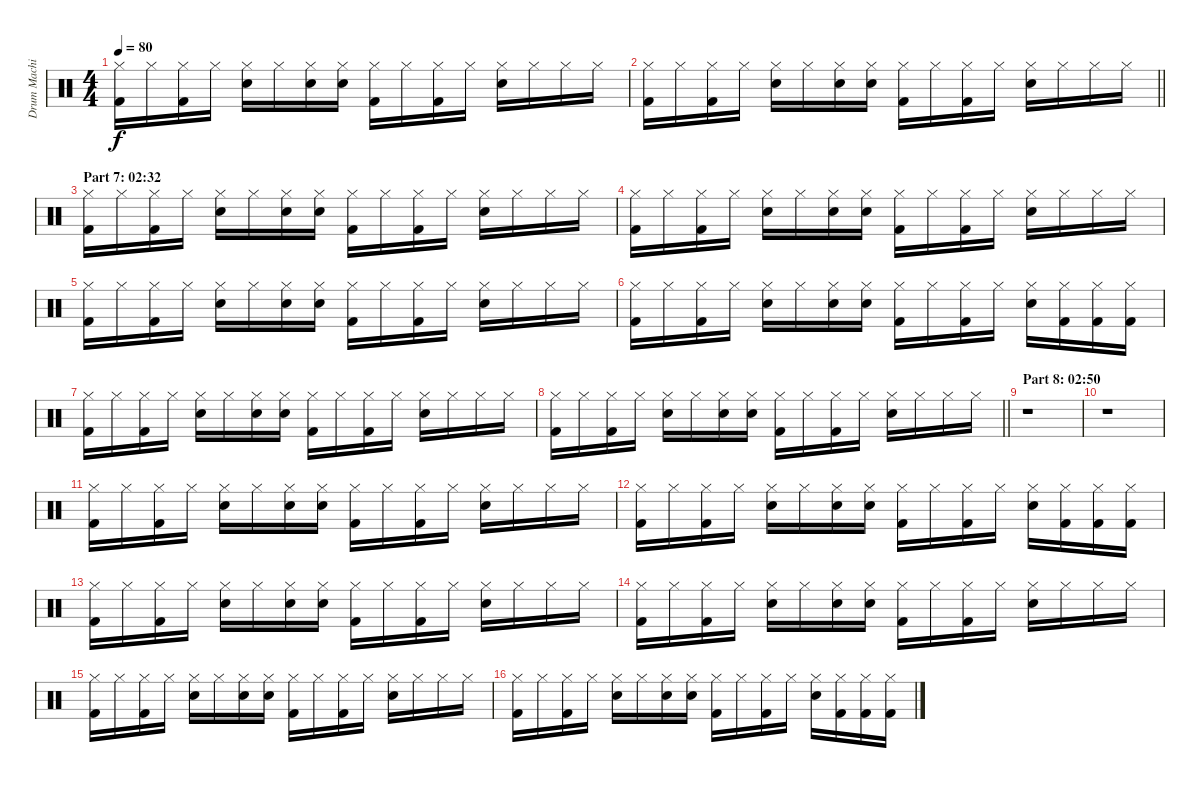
\track ("Drum Machine" "Drum Machi") {instrument percussion}
\staff {score}
\articulation defaults
\ts (4 4)
\tempo 80
\clef neutral
\ks c
("Hi-Hat (closed)" "Kick (hit) 2").16{dy f} "Hi-Hat (closed)".16 ("Hi-Hat (closed)" "Kick (hit) 2").16 "Hi-Hat (closed)".16 ("Hi-Hat (closed)" "Electric Snare (hit)").16 "Hi-Hat (closed)".16 ("Hi-Hat (closed)" "Electric Snare (hit)").16 ("Hi-Hat (closed)" "Electric Snare (hit)").16 ("Hi-Hat (closed)" "Kick (hit) 2").16 "Hi-Hat (closed)".16 ("Hi-Hat (closed)" "Kick (hit) 2").16 "Hi-Hat (closed)".16 ("Hi-Hat (closed)" "Electric Snare (hit)").16 "Hi-Hat (closed)".16 "Hi-Hat (closed)".16 "Hi-Hat (closed)".16 |
\barLineRight lightlight
("Hi-Hat (closed)" "Kick (hit) 2").16 "Hi-Hat (closed)".16 ("Hi-Hat (closed)" "Kick (hit) 2").16 "Hi-Hat (closed)".16 ("Hi-Hat (closed)" "Electric Snare (hit)").16 "Hi-Hat (closed)".16 ("Hi-Hat (closed)" "Electric Snare (hit)").16 ("Hi-Hat (closed)" "Electric Snare (hit)").16 ("Hi-Hat (closed)" "Kick (hit) 2").16 "Hi-Hat (closed)".16 ("Hi-Hat (closed)" "Kick (hit) 2").16 "Hi-Hat (closed)".16 ("Hi-Hat (closed)" "Electric Snare (hit)").16 "Hi-Hat (closed)".16 "Hi-Hat (closed)".16 "Hi-Hat (closed)".16 |
\section ("" "Part 7: 02:32")
("Hi-Hat (closed)" "Kick (hit) 2").16 "Hi-Hat (closed)".16 ("Hi-Hat (closed)" "Kick (hit) 2").16 "Hi-Hat (closed)".16 ("Hi-Hat (closed)" "Electric Snare (hit)").16 "Hi-Hat (closed)".16 ("Hi-Hat (closed)" "Electric Snare (hit)").16 ("Hi-Hat (closed)" "Electric Snare (hit)").16 ("Hi-Hat (closed)" "Kick (hit) 2").16 "Hi-Hat (closed)".16 ("Hi-Hat (closed)" "Kick (hit) 2").16 "Hi-Hat (closed)".16 ("Hi-Hat (closed)" "Electric Snare (hit)").16 "Hi-Hat (closed)".16 "Hi-Hat (closed)".16 "Hi-Hat (closed)".16 |
("Hi-Hat (closed)" "Kick (hit) 2").16 "Hi-Hat (closed)".16 ("Hi-Hat (closed)" "Kick (hit) 2").16 "Hi-Hat (closed)".16 ("Hi-Hat (closed)" "Electric Snare (hit)").16 "Hi-Hat (closed)".16 ("Hi-Hat (closed)" "Electric Snare (hit)").16 ("Hi-Hat (closed)" "Electric Snare (hit)").16 ("Hi-Hat (closed)" "Kick (hit) 2").16 "Hi-Hat (closed)".16 ("Hi-Hat (closed)" "Kick (hit) 2").16 "Hi-Hat (closed)".16 ("Hi-Hat (closed)" "Electric Snare (hit)").16 "Hi-Hat (closed)".16 "Hi-Hat (closed)".16 "Hi-Hat (closed)".16 |
("Hi-Hat (closed)" "Kick (hit) 2").16 "Hi-Hat (closed)".16 ("Hi-Hat (closed)" "Kick (hit) 2").16 "Hi-Hat (closed)".16 ("Hi-Hat (closed)" "Electric Snare (hit)").16 "Hi-Hat (closed)".16 ("Hi-Hat (closed)" "Electric Snare (hit)").16 ("Hi-Hat (closed)" "Electric Snare (hit)").16 ("Hi-Hat (closed)" "Kick (hit) 2").16 "Hi-Hat (closed)".16 ("Hi-Hat (closed)" "Kick (hit) 2").16 "Hi-Hat (closed)".16 ("Hi-Hat (closed)" "Electric Snare (hit)").16 "Hi-Hat (closed)".16 "Hi-Hat (closed)".16 "Hi-Hat (closed)".16 |
("Hi-Hat (closed)" "Kick (hit) 2").16 "Hi-Hat (closed)".16 ("Hi-Hat (closed)" "Kick (hit) 2").16 "Hi-Hat (closed)".16 ("Hi-Hat (closed)" "Electric Snare (hit)").16 "Hi-Hat (closed)".16 ("Hi-Hat (closed)" "Electric Snare (hit)").16 ("Hi-Hat (closed)" "Electric Snare (hit)").16 ("Hi-Hat (closed)" "Kick (hit) 2").16 "Hi-Hat (closed)".16 ("Hi-Hat (closed)" "Kick (hit) 2").16 "Hi-Hat (closed)".16 ("Hi-Hat (closed)" "Electric Snare (hit)").16 ("Hi-Hat (closed)" "Kick (hit) 2").16 ("Hi-Hat (closed)" "Kick (hit) 2").16 ("Hi-Hat (closed)" "Kick (hit) 2").16 |
("Hi-Hat (closed)" "Kick (hit) 2").16 "Hi-Hat (closed)".16 ("Hi-Hat (closed)" "Kick (hit) 2").16 "Hi-Hat (closed)".16 ("Hi-Hat (closed)" "Electric Snare (hit)").16 "Hi-Hat (closed)".16 ("Hi-Hat (closed)" "Electric Snare (hit)").16 ("Hi-Hat (closed)" "Electric Snare (hit)").16 ("Hi-Hat (closed)" "Kick (hit) 2").16 "Hi-Hat (closed)".16 ("Hi-Hat (closed)" "Kick (hit) 2").16 "Hi-Hat (closed)".16 ("Hi-Hat (closed)" "Electric Snare (hit)").16 "Hi-Hat (closed)".16 "Hi-Hat (closed)".16 "Hi-Hat (closed)".16 |
\barLineRight lightlight
("Hi-Hat (closed)" "Kick (hit) 2").16 "Hi-Hat (closed)".16 ("Hi-Hat (closed)" "Kick (hit) 2").16 "Hi-Hat (closed)".16 ("Hi-Hat (closed)" "Electric Snare (hit)").16 "Hi-Hat (closed)".16 ("Hi-Hat (closed)" "Electric Snare (hit)").16 ("Hi-Hat (closed)" "Electric Snare (hit)").16 ("Hi-Hat (closed)" "Kick (hit) 2").16 "Hi-Hat (closed)".16 ("Hi-Hat (closed)" "Kick (hit) 2").16 "Hi-Hat (closed)".16 ("Hi-Hat (closed)" "Electric Snare (hit)").16 "Hi-Hat (closed)".16 "Hi-Hat (closed)".16 "Hi-Hat (closed)".16 |
\section ("" "Part 8: 02:50")
r.1 |
r.1 |
("Hi-Hat (closed)" "Kick (hit) 2").16 "Hi-Hat (closed)".16 ("Hi-Hat (closed)" "Kick (hit) 2").16 "Hi-Hat (closed)".16 ("Hi-Hat (closed)" "Electric Snare (hit)").16 "Hi-Hat (closed)".16 ("Hi-Hat (closed)" "Electric Snare (hit)").16 ("Hi-Hat (closed)" "Electric Snare (hit)").16 ("Hi-Hat (closed)" "Kick (hit) 2").16 "Hi-Hat (closed)".16 ("Hi-Hat (closed)" "Kick (hit) 2").16 "Hi-Hat (closed)".16 ("Hi-Hat (closed)" "Electric Snare (hit)").16 "Hi-Hat (closed)".16 "Hi-Hat (closed)".16 "Hi-Hat (closed)".16 |
("Hi-Hat (closed)" "Kick (hit) 2").16 "Hi-Hat (closed)".16 ("Hi-Hat (closed)" "Kick (hit) 2").16 "Hi-Hat (closed)".16 ("Hi-Hat (closed)" "Electric Snare (hit)").16 "Hi-Hat (closed)".16 ("Hi-Hat (closed)" "Electric Snare (hit)").16 ("Hi-Hat (closed)" "Electric Snare (hit)").16 ("Hi-Hat (closed)" "Kick (hit) 2").16 "Hi-Hat (closed)".16 ("Hi-Hat (closed)" "Kick (hit) 2").16 "Hi-Hat (closed)".16 ("Hi-Hat (closed)" "Electric Snare (hit)").16 ("Hi-Hat (closed)" "Kick (hit) 2").16 ("Hi-Hat (closed)" "Kick (hit) 2").16 ("Hi-Hat (closed)" "Kick (hit) 2").16 |
("Hi-Hat (closed)" "Kick (hit) 2").16 "Hi-Hat (closed)".16 ("Hi-Hat (closed)" "Kick (hit) 2").16 "Hi-Hat (closed)".16 ("Hi-Hat (closed)" "Electric Snare (hit)").16 "Hi-Hat (closed)".16 ("Hi-Hat (closed)" "Electric Snare (hit)").16 ("Hi-Hat (closed)" "Electric Snare (hit)").16 ("Hi-Hat (closed)" "Kick (hit) 2").16 "Hi-Hat (closed)".16 ("Hi-Hat (closed)" "Kick (hit) 2").16 "Hi-Hat (closed)".16 ("Hi-Hat (closed)" "Electric Snare (hit)").16 "Hi-Hat (closed)".16 "Hi-Hat (closed)".16 "Hi-Hat (closed)".16 |
("Hi-Hat (closed)" "Kick (hit) 2").16 "Hi-Hat (closed)".16 ("Hi-Hat (closed)" "Kick (hit) 2").16 "Hi-Hat (closed)".16 ("Hi-Hat (closed)" "Electric Snare (hit)").16 "Hi-Hat (closed)".16 ("Hi-Hat (closed)" "Electric Snare (hit)").16 ("Hi-Hat (closed)" "Electric Snare (hit)").16 ("Hi-Hat (closed)" "Kick (hit) 2").16 "Hi-Hat (closed)".16 ("Hi-Hat (closed)" "Kick (hit) 2").16 "Hi-Hat (closed)".16 ("Hi-Hat (closed)" "Electric Snare (hit)").16 "Hi-Hat (closed)".16 "Hi-Hat (closed)".16 "Hi-Hat (closed)".16 |
("Hi-Hat (closed)" "Kick (hit) 2").16 "Hi-Hat (closed)".16 ("Hi-Hat (closed)" "Kick (hit) 2").16 "Hi-Hat (closed)".16 ("Hi-Hat (closed)" "Electric Snare (hit)").16 "Hi-Hat (closed)".16 ("Hi-Hat (closed)" "Electric Snare (hit)").16 ("Hi-Hat (closed)" "Electric Snare (hit)").16 ("Hi-Hat (closed)" "Kick (hit) 2").16 "Hi-Hat (closed)".16 ("Hi-Hat (closed)" "Kick (hit) 2").16 "Hi-Hat (closed)".16 ("Hi-Hat (closed)" "Electric Snare (hit)").16 "Hi-Hat (closed)".16 "Hi-Hat (closed)".16 "Hi-Hat (closed)".16 |
("Hi-Hat (closed)" "Kick (hit) 2").16 "Hi-Hat (closed)".16 ("Hi-Hat (closed)" "Kick (hit) 2").16 "Hi-Hat (closed)".16 ("Hi-Hat (closed)" "Electric Snare (hit)").16 "Hi-Hat (closed)".16 ("Hi-Hat (closed)" "Electric Snare (hit)").16 ("Hi-Hat (closed)" "Electric Snare (hit)").16 ("Hi-Hat (closed)" "Kick (hit) 2").16 "Hi-Hat (closed)".16 ("Hi-Hat (closed)" "Kick (hit) 2").16 "Hi-Hat (closed)".16 ("Hi-Hat (closed)" "Electric Snare (hit)").16 ("Hi-Hat (closed)" "Kick (hit) 2").16 ("Hi-Hat (closed)" "Kick (hit) 2").16 ("Hi-Hat (closed)" "Kick (hit) 2").16
